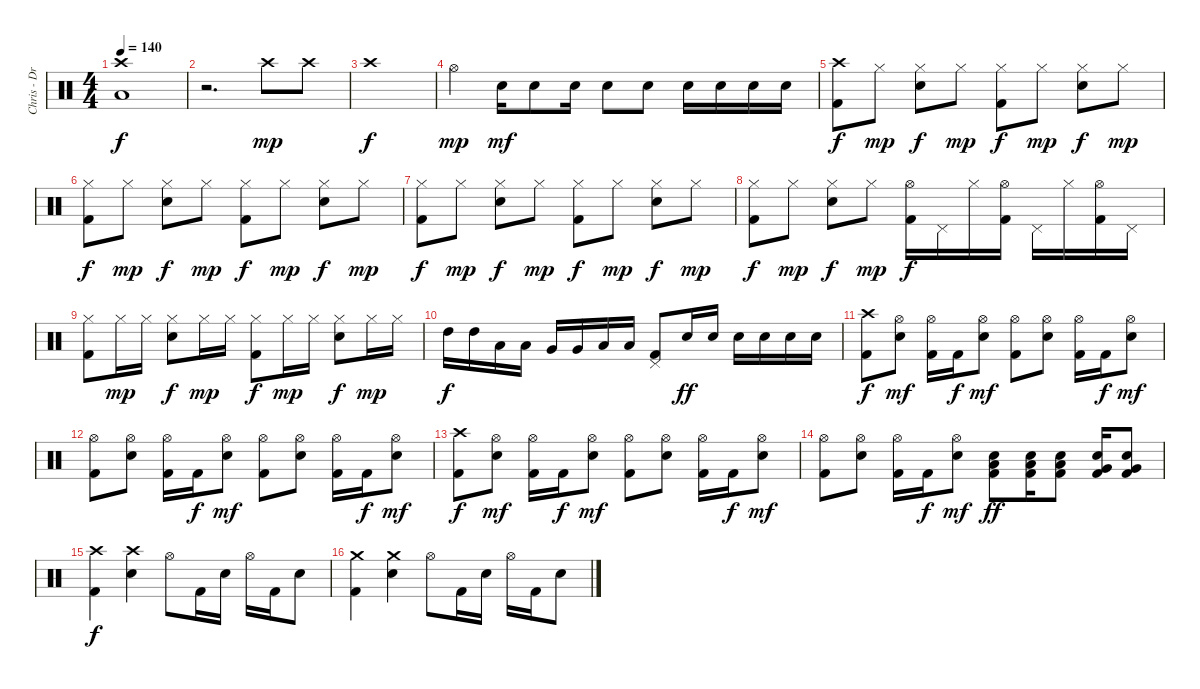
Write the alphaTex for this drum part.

\track ("Chris - Drums" "Chris - Dr") {instrument percussion}
\staff {score}
\articulation defaults
\ts (4 4)
\tempo 140
\clef neutral
\ks c
("Crash high (hit)" "Low Floor Tom (hit)").1{dy f} |
r.2{d} "Crash high (hit)".8{dy mp} "Crash high (hit)".8 |
"Crash high (hit)".1{dy f} |
"Hi-Hat (open)".4{dy mp} "Electric Snare (hit)".16{dy mf} "Electric Snare (hit)".8 "Electric Snare (hit)".16 "Electric Snare (hit)".8 "Electric Snare (hit)".8 "Electric Snare (hit)".16 "Electric Snare (hit)".16 "Electric Snare (hit)".16 "Electric Snare (hit)".16 |
("Crash high (hit)" "Kick (hit) 2").8{dy f} "Hi-Hat (closed)".8{dy mp} ("Hi-Hat (closed)" "Electric Snare (hit)").8{dy f} "Hi-Hat (closed)".8{dy mp} ("Hi-Hat (closed)" "Kick (hit) 2").8{dy f} "Hi-Hat (closed)".8{dy mp} ("Hi-Hat (closed)" "Electric Snare (hit)").8{dy f} "Hi-Hat (closed)".8{dy mp} |
("Hi-Hat (closed)" "Kick (hit) 2").8{dy f} "Hi-Hat (closed)".8{dy mp} ("Hi-Hat (closed)" "Electric Snare (hit)").8{dy f} "Hi-Hat (closed)".8{dy mp} ("Hi-Hat (closed)" "Kick (hit) 2").8{dy f} "Hi-Hat (closed)".8{dy mp} ("Hi-Hat (closed)" "Electric Snare (hit)").8{dy f} "Hi-Hat (closed)".8{dy mp} |
("Hi-Hat (closed)" "Kick (hit) 2").8{dy f} "Hi-Hat (closed)".8{dy mp} ("Hi-Hat (closed)" "Electric Snare (hit)").8{dy f} "Hi-Hat (closed)".8{dy mp} ("Hi-Hat (closed)" "Kick (hit) 2").8{dy f} "Hi-Hat (closed)".8{dy mp} ("Hi-Hat (closed)" "Electric Snare (hit)").8{dy f} "Hi-Hat (closed)".8{dy mp} |
("Hi-Hat (closed)" "Kick (hit) 2").8{dy f} "Hi-Hat (closed)".8{dy mp} ("Hi-Hat (closed)" "Electric Snare (hit)").8{dy f} "Hi-Hat (closed)".8{dy mp} ("Hi-Hat (open)" "Kick (hit) 2").16{dy f} "Pedal Hi-Hat (hit)".16 "Hi-Hat (closed)".16 ("Hi-Hat (open)" "Kick (hit) 2").16 "Pedal Hi-Hat (hit)".16 "Hi-Hat (closed)".16 ("Hi-Hat (open)" "Kick (hit) 2").16 "Pedal Hi-Hat (hit)".16 |
("Hi-Hat (closed)" "Kick (hit) 2").8 "Hi-Hat (closed)".16{dy mp} "Hi-Hat (closed)".16 ("Hi-Hat (closed)" "Electric Snare (hit)").8{dy f} "Hi-Hat (closed)".16{dy mp} "Hi-Hat (closed)".16 ("Hi-Hat (closed)" "Kick (hit) 2").8{dy f} "Hi-Hat (closed)".16{dy mp} "Hi-Hat (closed)".16 ("Hi-Hat (closed)" "Electric Snare (hit)").8{dy f} "Hi-Hat (closed)".16{dy mp} "Hi-Hat (closed)".16 |
"High Tom (hit)".16{dy f} "High Tom (hit)".16 "Low Tom (hit)".16 "Low Tom (hit)".16 "Very Low Tom (hit)".16 "Very Low Tom (hit)".16 "Low Floor Tom (hit)".16 "Low Floor Tom (hit)".16 ("Pedal Hi-Hat (hit)" "Kick (hit) 2").8 "Electric Snare (hit)".16{dy ff} "Electric Snare (hit)".16 "Electric Snare (hit)".16 "Electric Snare (hit)".16 "Electric Snare (hit)".16 "Electric Snare (hit)".16 |
("Crash high (hit)" "Kick (hit) 2").8{dy f} ("Hi-Hat (open)" "Electric Snare (hit)").8{dy mf} ("Hi-Hat (open)" "Kick (hit) 2").16 "Kick (hit) 2".16{dy f} ("Hi-Hat (open)" "Electric Snare (hit)").8{dy mf} ("Hi-Hat (open)" "Kick (hit) 2").8 ("Hi-Hat (open)" "Electric Snare (hit)").8 ("Hi-Hat (open)" "Kick (hit) 2").16 "Kick (hit) 2".16{dy f} ("Hi-Hat (open)" "Electric Snare (hit)").8{dy mf} |
("Hi-Hat (open)" "Kick (hit) 2").8 ("Hi-Hat (open)" "Electric Snare (hit)").8 ("Hi-Hat (open)" "Kick (hit) 2").16 "Kick (hit) 2".16{dy f} ("Hi-Hat (open)" "Electric Snare (hit)").8{dy mf} ("Hi-Hat (open)" "Kick (hit) 2").8 ("Hi-Hat (open)" "Electric Snare (hit)").8 ("Hi-Hat (open)" "Kick (hit) 2").16 "Kick (hit) 2".16{dy f} ("Hi-Hat (open)" "Electric Snare (hit)").8{dy mf} |
("Crash high (hit)" "Kick (hit) 2").8{dy f} ("Hi-Hat (open)" "Electric Snare (hit)").8{dy mf} ("Hi-Hat (open)" "Kick (hit) 2").16 "Kick (hit) 2".16{dy f} ("Hi-Hat (open)" "Electric Snare (hit)").8{dy mf} ("Hi-Hat (open)" "Kick (hit) 2").8 ("Hi-Hat (open)" "Electric Snare (hit)").8 ("Hi-Hat (open)" "Kick (hit) 2").16 "Kick (hit) 2".16{dy f} ("Hi-Hat (open)" "Electric Snare (hit)").8{dy mf} |
("Hi-Hat (open)" "Kick (hit) 2").8 ("Hi-Hat (open)" "Electric Snare (hit)").8 ("Hi-Hat (open)" "Kick (hit) 2").16 "Kick (hit) 2".16{dy f} ("Hi-Hat (open)" "Electric Snare (hit)").8{dy mf} ("Low Tom (hit)" "Electric Snare (hit)" "Kick (hit) 2").8{dy ff} ("Low Tom (hit)" "Electric Snare (hit)" "Kick (hit) 2").16 ("Low Tom (hit)" "Electric Snare (hit)" "Kick (hit) 2").8 ("Very Low Tom (hit)" "Electric Snare (hit)" "Kick (hit) 2").16 ("Very Low Tom (hit)" "Electric Snare (hit)" "Kick (hit) 2").8 |
("Crash high (hit)" "Kick (hit) 2").4{dy f} ("Crash high (hit)" "Electric Snare (hit)").4 "Hi-Hat (open)".8 "Kick (hit) 2".16 "Electric Snare (hit)".16 "Hi-Hat (open)".16 "Kick (hit) 2".16 "Electric Snare (hit)".8 |
("Crash medium (hit)" "Kick (hit) 2").4 ("Crash medium (hit)" "Electric Snare (hit)").4 "Hi-Hat (open)".8 "Kick (hit) 2".16 "Electric Snare (hit)".16 "Hi-Hat (open)".16 "Kick (hit) 2".16 "Electric Snare (hit)".8
